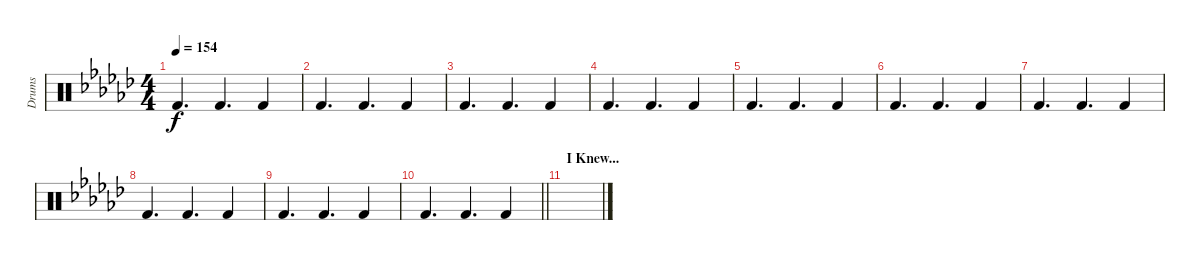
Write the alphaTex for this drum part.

\track ("Drums" "Drums") {instrument percussion}
\staff {score}
\articulation defaults
\ts (4 4)
\tempo 154
\clef neutral
\ks gb "Kick (hit) 2".4{d dy f} "Kick (hit) 2".4{d} "Kick (hit) 2".4
|
"Kick (hit) 2".4{d} "Kick (hit) 2".4{d} "Kick (hit) 2".4 |
"Kick (hit) 2".4{d} "Kick (hit) 2".4{d} "Kick (hit) 2".4 |
"Kick (hit) 2".4{d} "Kick (hit) 2".4{d} "Kick (hit) 2".4 |
"Kick (hit) 2".4{d} "Kick (hit) 2".4{d} "Kick (hit) 2".4 |
"Kick (hit) 2".4{d} "Kick (hit) 2".4{d} "Kick (hit) 2".4 |
"Kick (hit) 2".4{d} "Kick (hit) 2".4{d} "Kick (hit) 2".4 |
"Kick (hit) 2".4{d} "Kick (hit) 2".4{d} "Kick (hit) 2".4 |
"Kick (hit) 2".4{d} "Kick (hit) 2".4{d} "Kick (hit) 2".4 |
\barLineRight lightlight "Kick (hit) 2".4{d} "Kick (hit) 2".4{d} "Kick (hit) 2".4
|
\section ("" "I Knew...")
